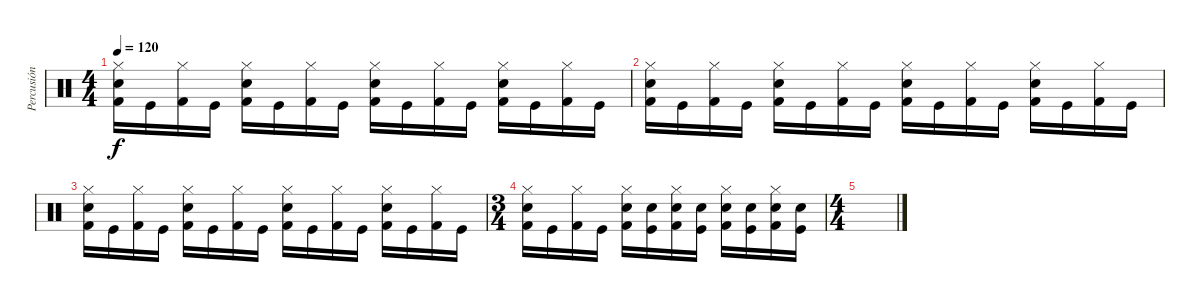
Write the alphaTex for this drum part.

\track ("Percusión" "Percusión") {instrument percussion}
\staff {score}
\articulation defaults
\ts (4 4)
\tempo 120
\clef neutral
\ks c
("Hi-Hat (closed)" "Snare (hit) 2" "Kick (hit) 2").16{dy f} "Kick (hit)".16 ("Hi-Hat (closed)" "Kick (hit) 2").16 "Kick (hit)".16 ("Hi-Hat (closed)" "Snare (hit) 2" "Kick (hit) 2").16 "Kick (hit)".16 ("Hi-Hat (closed)" "Kick (hit) 2").16 "Kick (hit)".16 ("Hi-Hat (closed)" "Snare (hit) 2" "Kick (hit) 2").16 "Kick (hit)".16 ("Hi-Hat (closed)" "Kick (hit) 2").16 "Kick (hit)".16 ("Hi-Hat (closed)" "Snare (hit) 2" "Kick (hit) 2").16 "Kick (hit)".16 ("Hi-Hat (closed)" "Kick (hit) 2").16 "Kick (hit)".16 |
("Hi-Hat (closed)" "Snare (hit) 2" "Kick (hit) 2").16 "Kick (hit)".16 ("Hi-Hat (closed)" "Kick (hit) 2").16 "Kick (hit)".16 ("Hi-Hat (closed)" "Snare (hit) 2" "Kick (hit) 2").16 "Kick (hit)".16 ("Hi-Hat (closed)" "Kick (hit) 2").16 "Kick (hit)".16 ("Hi-Hat (closed)" "Snare (hit) 2" "Kick (hit) 2").16 "Kick (hit)".16 ("Hi-Hat (closed)" "Kick (hit) 2").16 "Kick (hit)".16 ("Hi-Hat (closed)" "Snare (hit) 2" "Kick (hit) 2").16 "Kick (hit)".16 ("Hi-Hat (closed)" "Kick (hit) 2").16 "Kick (hit)".16 |
("Hi-Hat (closed)" "Snare (hit) 2" "Kick (hit) 2").16 "Kick (hit)".16 ("Hi-Hat (closed)" "Kick (hit) 2").16 "Kick (hit)".16 ("Hi-Hat (closed)" "Snare (hit) 2" "Kick (hit) 2").16 "Kick (hit)".16 ("Hi-Hat (closed)" "Kick (hit) 2").16 "Kick (hit)".16 ("Hi-Hat (closed)" "Snare (hit) 2" "Kick (hit) 2").16 "Kick (hit)".16 ("Hi-Hat (closed)" "Kick (hit) 2").16 "Kick (hit)".16 ("Hi-Hat (closed)" "Snare (hit) 2" "Kick (hit) 2").16 "Kick (hit)".16 ("Hi-Hat (closed)" "Kick (hit) 2").16 "Kick (hit)".16 |
\ts (3 4)
("Hi-Hat (closed)" "Snare (hit) 2" "Kick (hit) 2").16 "Kick (hit)".16 ("Hi-Hat (closed)" "Kick (hit) 2").16 "Kick (hit)".16 ("Hi-Hat (closed)" "Snare (hit) 2" "Kick (hit) 2").16 ("Snare (hit) 2" "Kick (hit)").16 ("Hi-Hat (closed)" "Snare (hit) 2" "Kick (hit) 2").16 ("Snare (hit) 2" "Kick (hit)").16 ("Hi-Hat (closed)" "Snare (hit) 2" "Kick (hit) 2").16 ("Snare (hit) 2" "Kick (hit)").16 ("Hi-Hat (closed)" "Snare (hit) 2" "Kick (hit) 2").16 ("Snare (hit) 2" "Kick (hit)").16 |
\ts (4 4)
